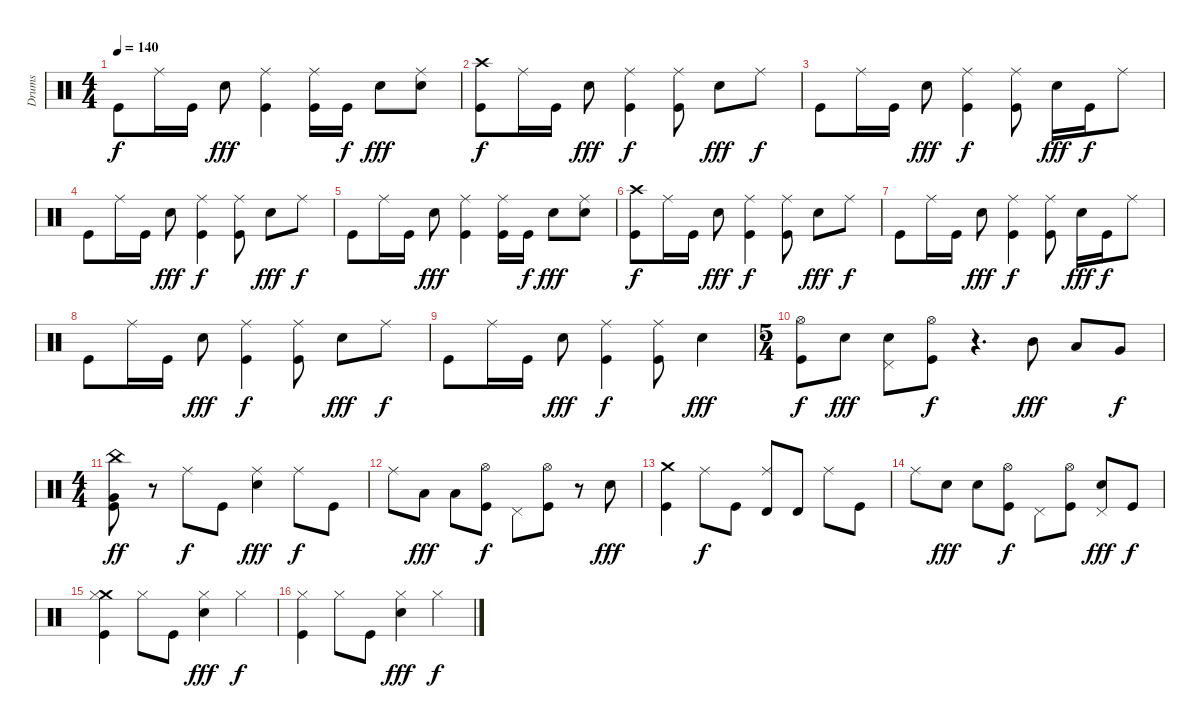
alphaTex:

\track ("Drums" "Drums") {instrument percussion}
\staff {score}
\articulation defaults
\ts (4 4)
\tempo 140
\clef neutral
\ks c "Kick (hit)".8{dy f} "Ride (middle)".16 "Kick (hit)".16 "Electric Snare (hit)".8{dy fff}
("Ride (middle)" "Kick (hit)").4 ("Ride (middle)" "Kick (hit)").16 "Kick (hit)".16{dy f} "Electric Snare (hit)".8{dy fff} ("Electric Snare (hit)" "Ride (middle)").8 |
("Crash high (hit)" "Kick (hit)").8{dy f} "Ride (middle)".16 "Kick (hit)".16 "Electric Snare (hit)".8{dy fff} ("Ride (middle)" "Kick (hit)").4{dy f} ("Ride (middle)" "Kick (hit)").8 "Electric Snare (hit)".8{dy fff} "Ride (middle)".8{dy f} |
"Kick (hit)".8 "Ride (middle)".16 "Kick (hit)".16 "Electric Snare (hit)".8{dy fff} ("Ride (middle)" "Kick (hit)").4{dy f} ("Ride (middle)" "Kick (hit)").8 "Electric Snare (hit)".16{dy fff} "Kick (hit)".16{dy f} "Ride (middle)".8 |
"Kick (hit)".8 "Ride (middle)".16 "Kick (hit)".16 "Electric Snare (hit)".8{dy fff} ("Ride (middle)" "Kick (hit)").4{dy f} ("Ride (middle)" "Kick (hit)").8 "Electric Snare (hit)".8{dy fff} "Ride (middle)".8{dy f} |
"Kick (hit)".8 "Ride (middle)".16 "Kick (hit)".16 "Electric Snare (hit)".8{dy fff} ("Ride (middle)" "Kick (hit)").4 ("Ride (middle)" "Kick (hit)").16 "Kick (hit)".16{dy f} "Electric Snare (hit)".8{dy fff} ("Electric Snare (hit)" "Ride (middle)").8 |
("Crash high (hit)" "Kick (hit)").8{dy f} "Ride (middle)".16 "Kick (hit)".16 "Electric Snare (hit)".8{dy fff} ("Ride (middle)" "Kick (hit)").4{dy f} ("Ride (middle)" "Kick (hit)").8 "Electric Snare (hit)".8{dy fff} "Ride (middle)".8{dy f} |
"Kick (hit)".8 "Ride (middle)".16 "Kick (hit)".16 "Electric Snare (hit)".8{dy fff} ("Ride (middle)" "Kick (hit)").4{dy f} ("Ride (middle)" "Kick (hit)").8 "Electric Snare (hit)".16{dy fff} "Kick (hit)".16{dy f} "Ride (middle)".8 |
"Kick (hit)".8 "Ride (middle)".16 "Kick (hit)".16 "Electric Snare (hit)".8{dy fff} ("Ride (middle)" "Kick (hit)").4{dy f} ("Ride (middle)" "Kick (hit)").8 "Electric Snare (hit)".8{dy fff} "Ride (middle)".8{dy f} |
"Kick (hit)".8 "Ride (middle)".16 "Kick (hit)".16 "Electric Snare (hit)".8{dy fff} ("Ride (middle)" "Kick (hit)").4{dy f} ("Ride (middle)" "Kick (hit)").8 "Electric Snare (hit)".4{dy fff} |
\ts (5 4)
("Hi-Hat (open)" "Kick (hit)").8{dy f} "Electric Snare (hit)".8{dy fff} ("Electric Snare (hit)" "Pedal Hi-Hat (hit)").8 ("Hi-Hat (open)" "Kick (hit)").8{dy f} r.4{d} "Mid Tom (hit)".8{dy fff} "Low Tom (hit)".8 "Very Low Tom (hit)".8{dy f} |
\ts (4 4)
("China (hit)" "Very Low Tom (hit)" "Kick (hit)").8{dy ff} r.8 "Ride (middle)".8{dy f} "Kick (hit)".8 ("Electric Snare (hit)" "Ride (middle)").4{dy fff} "Ride (middle)".8{dy f} "Kick (hit)".8 |
"Ride (middle)".8 "Low Tom (hit)".8{dy fff} "Low Floor Tom (hit)".8 ("Hi-Hat (open)" "Kick (hit)").8{dy f} "Pedal Hi-Hat (hit)".8 ("Hi-Hat (open)" "Kick (hit)").8 r.8 "Electric Snare (hit)".8{dy fff} |
("Crash medium (hit)" "Kick (hit)").4 "Ride (middle)".8{dy f} "Kick (hit)".8 ("Timbale high (hit)" "Ride (middle)").8 "Timbale high (hit)".8 "Ride (middle)".8 "Kick (hit)".8 |
"Ride (middle)".8 "Electric Snare (hit)".8{dy fff} "Electric Snare (hit)".8 ("Hi-Hat (open)" "Kick (hit)").8{dy f} "Pedal Hi-Hat (hit)".8 ("Hi-Hat (open)" "Kick (hit)").8 ("Electric Snare (hit)" "Pedal Hi-Hat (hit)").8{dy fff} "Kick (hit)".8{dy f} |
("Crash medium (hit)" "Hi-Hat (closed)" "Kick (hit)").4 "Hi-Hat (closed)".8 "Kick (hit)".8 ("Electric Snare (hit)" "Hi-Hat (closed)").4{dy fff} "Hi-Hat (closed)".4{dy f} |
("Hi-Hat (closed)" "Kick (hit)").4 "Hi-Hat (closed)".8 "Kick (hit)".8 ("Electric Snare (hit)" "Hi-Hat (closed)").4{dy fff} "Hi-Hat (closed)".4{dy f}
